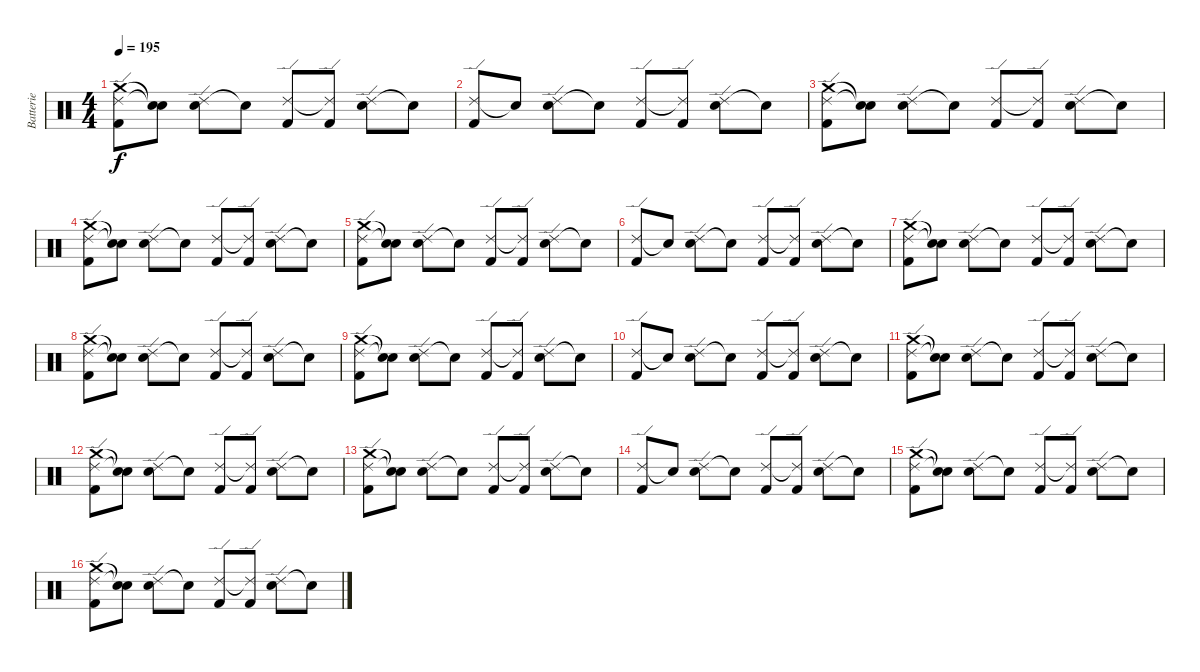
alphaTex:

\track ("Batterie" "Batterie") {instrument percussion}
\staff {score}
\articulation defaults
\ts (4 4)
\tempo 195
\clef neutral
\ks c
("Crash medium (hit)" "Ride (edge) 2" "Kick (hit) 2").8{dy f} ("Snare (hit)"{t} "Snare (hit)"{t}).8 ("Ride (edge) 2" "Electric Snare (hit)").8 "Snare (hit)"{t}.8 ("Ride (edge) 2" "Kick (hit) 2").8 ("Ride (edge) 2"{t} "Kick (hit) 2").8 ("Ride (edge) 2" "Electric Snare (hit)").8 "Snare (hit)"{t}.8 |
("Ride (edge) 2" "Kick (hit) 2").8 "Snare (hit)"{t}.8 ("Ride (edge) 2" "Electric Snare (hit)").8 "Snare (hit)"{t}.8 ("Ride (edge) 2" "Kick (hit) 2").8 ("Ride (edge) 2"{t} "Kick (hit) 2").8 ("Ride (edge) 2" "Electric Snare (hit)").8 "Snare (hit)"{t}.8 |
("Crash medium (hit)" "Ride (edge) 2" "Kick (hit) 2").8 ("Snare (hit)"{t} "Snare (hit)"{t}).8 ("Ride (edge) 2" "Electric Snare (hit)").8 "Snare (hit)"{t}.8 ("Ride (edge) 2" "Kick (hit) 2").8 ("Ride (edge) 2"{t} "Kick (hit) 2").8 ("Ride (edge) 2" "Electric Snare (hit)").8 "Snare (hit)"{t}.8 |
("Crash medium (hit)" "Ride (edge) 2" "Kick (hit) 2").8 ("Snare (hit)"{t} "Snare (hit)"{t}).8 ("Ride (edge) 2" "Electric Snare (hit)").8 "Snare (hit)"{t}.8 ("Ride (edge) 2" "Kick (hit) 2").8 ("Ride (edge) 2"{t} "Kick (hit) 2").8 ("Ride (edge) 2" "Electric Snare (hit)").8 "Snare (hit)"{t}.8 |
("Crash medium (hit)" "Ride (edge) 2" "Kick (hit) 2").8 ("Snare (hit)"{t} "Snare (hit)"{t}).8 ("Ride (edge) 2" "Electric Snare (hit)").8 "Snare (hit)"{t}.8 ("Ride (edge) 2" "Kick (hit) 2").8 ("Ride (edge) 2"{t} "Kick (hit) 2").8 ("Ride (edge) 2" "Electric Snare (hit)").8 "Snare (hit)"{t}.8 |
("Ride (edge) 2" "Kick (hit) 2").8 "Snare (hit)"{t}.8 ("Ride (edge) 2" "Electric Snare (hit)").8 "Snare (hit)"{t}.8 ("Ride (edge) 2" "Kick (hit) 2").8 ("Ride (edge) 2"{t} "Kick (hit) 2").8 ("Ride (edge) 2" "Electric Snare (hit)").8 "Snare (hit)"{t}.8 |
("Crash medium (hit)" "Ride (edge) 2" "Kick (hit) 2").8 ("Snare (hit)"{t} "Snare (hit)"{t}).8 ("Ride (edge) 2" "Electric Snare (hit)").8 "Snare (hit)"{t}.8 ("Ride (edge) 2" "Kick (hit) 2").8 ("Ride (edge) 2"{t} "Kick (hit) 2").8 ("Ride (edge) 2" "Electric Snare (hit)").8 "Snare (hit)"{t}.8 |
("Crash medium (hit)" "Ride (edge) 2" "Kick (hit) 2").8 ("Snare (hit)"{t} "Snare (hit)"{t}).8 ("Ride (edge) 2" "Electric Snare (hit)").8 "Snare (hit)"{t}.8 ("Ride (edge) 2" "Kick (hit) 2").8 ("Ride (edge) 2"{t} "Kick (hit) 2").8 ("Ride (edge) 2" "Electric Snare (hit)").8 "Snare (hit)"{t}.8 |
("Crash medium (hit)" "Ride (edge) 2" "Kick (hit) 2").8 ("Snare (hit)"{t} "Snare (hit)"{t}).8 ("Ride (edge) 2" "Electric Snare (hit)").8 "Snare (hit)"{t}.8 ("Ride (edge) 2" "Kick (hit) 2").8 ("Ride (edge) 2"{t} "Kick (hit) 2").8 ("Ride (edge) 2" "Electric Snare (hit)").8 "Snare (hit)"{t}.8 |
("Ride (edge) 2" "Kick (hit) 2").8 "Snare (hit)"{t}.8 ("Ride (edge) 2" "Electric Snare (hit)").8 "Snare (hit)"{t}.8 ("Ride (edge) 2" "Kick (hit) 2").8 ("Ride (edge) 2"{t} "Kick (hit) 2").8 ("Ride (edge) 2" "Electric Snare (hit)").8 "Snare (hit)"{t}.8 |
("Crash medium (hit)" "Ride (edge) 2" "Kick (hit) 2").8 ("Snare (hit)"{t} "Snare (hit)"{t}).8 ("Ride (edge) 2" "Electric Snare (hit)").8 "Snare (hit)"{t}.8 ("Ride (edge) 2" "Kick (hit) 2").8 ("Ride (edge) 2"{t} "Kick (hit) 2").8 ("Ride (edge) 2" "Electric Snare (hit)").8 "Snare (hit)"{t}.8 |
("Crash medium (hit)" "Ride (edge) 2" "Kick (hit) 2").8 ("Snare (hit)"{t} "Snare (hit)"{t}).8 ("Ride (edge) 2" "Electric Snare (hit)").8 "Snare (hit)"{t}.8 ("Ride (edge) 2" "Kick (hit) 2").8 ("Ride (edge) 2"{t} "Kick (hit) 2").8 ("Ride (edge) 2" "Electric Snare (hit)").8 "Snare (hit)"{t}.8 |
("Crash medium (hit)" "Ride (edge) 2" "Kick (hit) 2").8 ("Snare (hit)"{t} "Snare (hit)"{t}).8 ("Ride (edge) 2" "Electric Snare (hit)").8 "Snare (hit)"{t}.8 ("Ride (edge) 2" "Kick (hit) 2").8 ("Ride (edge) 2"{t} "Kick (hit) 2").8 ("Ride (edge) 2" "Electric Snare (hit)").8 "Snare (hit)"{t}.8 |
("Ride (edge) 2" "Kick (hit) 2").8 "Snare (hit)"{t}.8 ("Ride (edge) 2" "Electric Snare (hit)").8 "Snare (hit)"{t}.8 ("Ride (edge) 2" "Kick (hit) 2").8 ("Ride (edge) 2"{t} "Kick (hit) 2").8 ("Ride (edge) 2" "Electric Snare (hit)").8 "Snare (hit)"{t}.8 |
("Crash medium (hit)" "Ride (edge) 2" "Kick (hit) 2").8 ("Snare (hit)"{t} "Snare (hit)"{t}).8 ("Ride (edge) 2" "Electric Snare (hit)").8 "Snare (hit)"{t}.8 ("Ride (edge) 2" "Kick (hit) 2").8 ("Ride (edge) 2"{t} "Kick (hit) 2").8 ("Ride (edge) 2" "Electric Snare (hit)").8 "Snare (hit)"{t}.8 |
("Crash medium (hit)" "Ride (edge) 2" "Kick (hit) 2").8 ("Snare (hit)"{t} "Snare (hit)"{t}).8 ("Ride (edge) 2" "Electric Snare (hit)").8 "Snare (hit)"{t}.8 ("Ride (edge) 2" "Kick (hit) 2").8 ("Ride (edge) 2"{t} "Kick (hit) 2").8 ("Ride (edge) 2" "Electric Snare (hit)").8 "Snare (hit)"{t}.8
